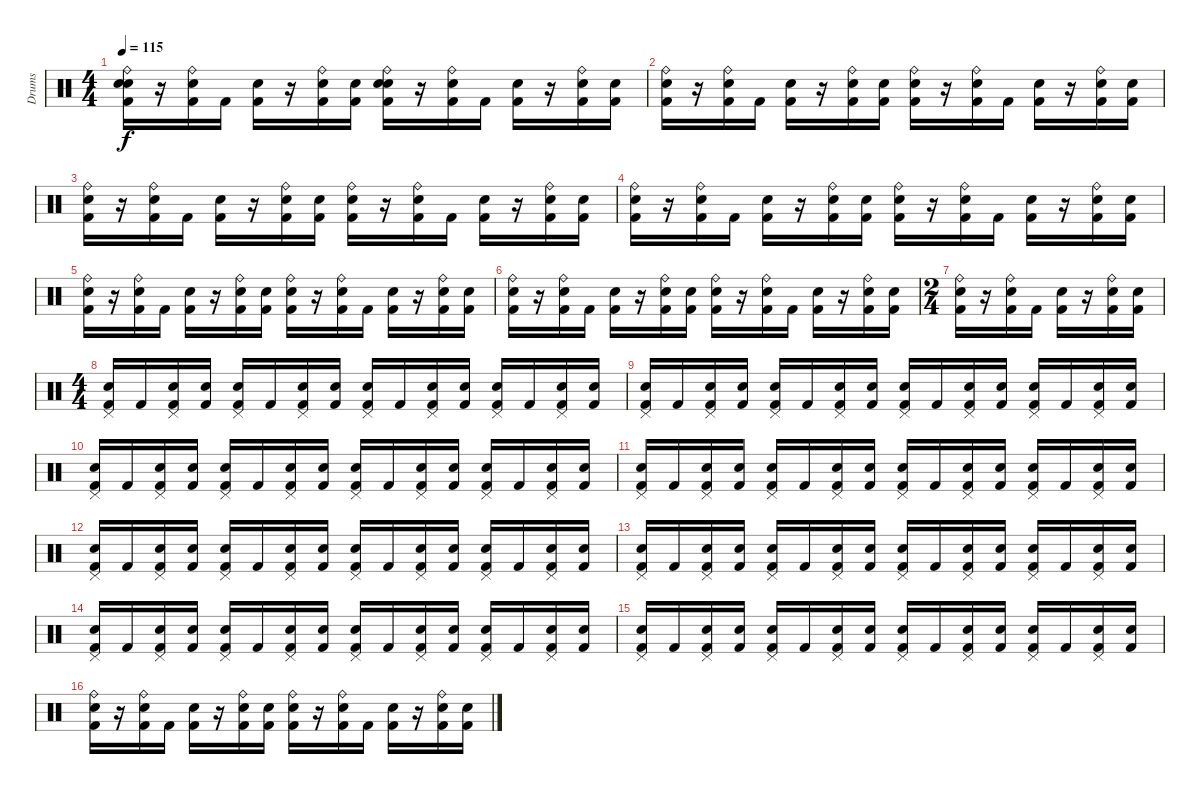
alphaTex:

\track ("Drums" "Drums") {instrument percussion}
\staff {score}
\articulation defaults
\ts (4 4)
\tempo 115
\clef neutral
\ks c
("Ride (bell)" "Electric Snare (hit)" "Snare (hit) 2" "Kick (hit) 2").16{dy f} r.16 ("Ride (bell)" "Snare (hit) 2" "Kick (hit) 2").16 "Kick (hit) 2".16 ("Electric Snare (hit)" "Kick (hit) 2").16 r.16 ("Ride (bell)" "Snare (hit) 2" "Kick (hit) 2").16 ("Snare (hit) 2" "Kick (hit) 2").16 ("Ride (bell)" "Electric Snare (hit)" "Snare (hit) 2" "Kick (hit) 2").16 r.16 ("Ride (bell)" "Snare (hit) 2" "Kick (hit) 2").16 "Kick (hit) 2".16 ("Electric Snare (hit)" "Kick (hit) 2").16 r.16 ("Ride (bell)" "Snare (hit) 2" "Kick (hit) 2").16 ("Snare (hit) 2" "Kick (hit) 2").16 |
("Ride (bell)" "Snare (hit) 2" "Kick (hit) 2").16 r.16 ("Ride (bell)" "Snare (hit) 2" "Kick (hit) 2").16 "Kick (hit) 2".16 ("Electric Snare (hit)" "Kick (hit) 2").16 r.16 ("Ride (bell)" "Snare (hit) 2" "Kick (hit) 2").16 ("Snare (hit) 2" "Kick (hit) 2").16 ("Ride (bell)" "Snare (hit) 2" "Kick (hit) 2").16 r.16 ("Ride (bell)" "Snare (hit) 2" "Kick (hit) 2").16 "Kick (hit) 2".16 ("Electric Snare (hit)" "Kick (hit) 2").16 r.16 ("Ride (bell)" "Snare (hit) 2" "Kick (hit) 2").16 ("Snare (hit) 2" "Kick (hit) 2").16 |
("Ride (bell)" "Snare (hit) 2" "Kick (hit) 2").16 r.16 ("Ride (bell)" "Snare (hit) 2" "Kick (hit) 2").16 "Kick (hit) 2".16 ("Electric Snare (hit)" "Kick (hit) 2").16 r.16 ("Ride (bell)" "Snare (hit) 2" "Kick (hit) 2").16 ("Snare (hit) 2" "Kick (hit) 2").16 ("Ride (bell)" "Snare (hit) 2" "Kick (hit) 2").16 r.16 ("Ride (bell)" "Snare (hit) 2" "Kick (hit) 2").16 "Kick (hit) 2".16 ("Electric Snare (hit)" "Kick (hit) 2").16 r.16 ("Ride (bell)" "Snare (hit) 2" "Kick (hit) 2").16 ("Snare (hit) 2" "Kick (hit) 2").16 |
("Ride (bell)" "Snare (hit) 2" "Kick (hit) 2").16 r.16 ("Ride (bell)" "Snare (hit) 2" "Kick (hit) 2").16 "Kick (hit) 2".16 ("Electric Snare (hit)" "Kick (hit) 2").16 r.16 ("Ride (bell)" "Snare (hit) 2" "Kick (hit) 2").16 ("Snare (hit) 2" "Kick (hit) 2").16 ("Ride (bell)" "Snare (hit) 2" "Kick (hit) 2").16 r.16 ("Ride (bell)" "Snare (hit) 2" "Kick (hit) 2").16 "Kick (hit) 2".16 ("Electric Snare (hit)" "Kick (hit) 2").16 r.16 ("Ride (bell)" "Snare (hit) 2" "Kick (hit) 2").16 ("Snare (hit) 2" "Kick (hit) 2").16 |
("Ride (bell)" "Snare (hit) 2" "Kick (hit) 2").16 r.16 ("Ride (bell)" "Snare (hit) 2" "Kick (hit) 2").16 "Kick (hit) 2".16 ("Electric Snare (hit)" "Kick (hit) 2").16 r.16 ("Ride (bell)" "Snare (hit) 2" "Kick (hit) 2").16 ("Snare (hit) 2" "Kick (hit) 2").16 ("Ride (bell)" "Snare (hit) 2" "Kick (hit) 2").16 r.16 ("Ride (bell)" "Snare (hit) 2" "Kick (hit) 2").16 "Kick (hit) 2".16 ("Electric Snare (hit)" "Kick (hit) 2").16 r.16 ("Ride (bell)" "Snare (hit) 2" "Kick (hit) 2").16 ("Snare (hit) 2" "Kick (hit) 2").16 |
("Ride (bell)" "Snare (hit) 2" "Kick (hit) 2").16 r.16 ("Ride (bell)" "Snare (hit) 2" "Kick (hit) 2").16 "Kick (hit) 2".16 ("Electric Snare (hit)" "Kick (hit) 2").16 r.16 ("Ride (bell)" "Snare (hit) 2" "Kick (hit) 2").16 ("Snare (hit) 2" "Kick (hit) 2").16 ("Ride (bell)" "Snare (hit) 2" "Kick (hit) 2").16 r.16 ("Ride (bell)" "Snare (hit) 2" "Kick (hit) 2").16 "Kick (hit) 2".16 ("Electric Snare (hit)" "Kick (hit) 2").16 r.16 ("Ride (bell)" "Snare (hit) 2" "Kick (hit) 2").16 ("Snare (hit) 2" "Kick (hit) 2").16 |
\ts (2 4)
("Ride (bell)" "Snare (hit) 2" "Kick (hit) 2").16 r.16 ("Ride (bell)" "Snare (hit) 2" "Kick (hit) 2").16 "Kick (hit) 2".16 ("Electric Snare (hit)" "Kick (hit) 2").16 r.16 ("Ride (bell)" "Snare (hit) 2" "Kick (hit) 2").16 ("Snare (hit) 2" "Kick (hit) 2").16 |
\ts (4 4)
("Pedal Hi-Hat (hit)" "Kick (hit) 2" "Snare (hit) 2").16 "Kick (hit) 2".16 ("Pedal Hi-Hat (hit)" "Kick (hit) 2" "Snare (hit) 2").16 ("Kick (hit) 2" "Snare (hit) 2").16 ("Pedal Hi-Hat (hit)" "Electric Snare (hit)" "Kick (hit) 2").16 "Kick (hit) 2".16 ("Pedal Hi-Hat (hit)" "Kick (hit) 2" "Snare (hit) 2").16 ("Kick (hit) 2" "Snare (hit) 2").16 ("Pedal Hi-Hat (hit)" "Kick (hit) 2" "Snare (hit) 2").16 "Kick (hit) 2".16 ("Pedal Hi-Hat (hit)" "Kick (hit) 2" "Snare (hit) 2").16 ("Kick (hit) 2" "Snare (hit) 2").16 ("Pedal Hi-Hat (hit)" "Electric Snare (hit)" "Kick (hit) 2").16 "Kick (hit) 2".16 ("Pedal Hi-Hat (hit)" "Kick (hit) 2" "Snare (hit) 2").16 ("Kick (hit) 2" "Snare (hit) 2").16 |
("Pedal Hi-Hat (hit)" "Kick (hit) 2" "Snare (hit) 2").16 "Kick (hit) 2".16 ("Pedal Hi-Hat (hit)" "Kick (hit) 2" "Snare (hit) 2").16 ("Kick (hit) 2" "Snare (hit) 2").16 ("Pedal Hi-Hat (hit)" "Electric Snare (hit)" "Kick (hit) 2").16 "Kick (hit) 2".16 ("Pedal Hi-Hat (hit)" "Kick (hit) 2" "Snare (hit) 2").16 ("Kick (hit) 2" "Snare (hit) 2").16 ("Pedal Hi-Hat (hit)" "Kick (hit) 2" "Snare (hit) 2").16 "Kick (hit) 2".16 ("Pedal Hi-Hat (hit)" "Kick (hit) 2" "Snare (hit) 2").16 ("Kick (hit) 2" "Snare (hit) 2").16 ("Pedal Hi-Hat (hit)" "Electric Snare (hit)" "Kick (hit) 2").16 "Kick (hit) 2".16 ("Pedal Hi-Hat (hit)" "Kick (hit) 2" "Snare (hit) 2").16 ("Kick (hit) 2" "Snare (hit) 2").16 |
("Pedal Hi-Hat (hit)" "Kick (hit) 2" "Snare (hit) 2").16 "Kick (hit) 2".16 ("Pedal Hi-Hat (hit)" "Kick (hit) 2" "Snare (hit) 2").16 ("Kick (hit) 2" "Snare (hit) 2").16 ("Pedal Hi-Hat (hit)" "Electric Snare (hit)" "Kick (hit) 2").16 "Kick (hit) 2".16 ("Pedal Hi-Hat (hit)" "Kick (hit) 2" "Snare (hit) 2").16 ("Kick (hit) 2" "Snare (hit) 2").16 ("Pedal Hi-Hat (hit)" "Kick (hit) 2" "Snare (hit) 2").16 "Kick (hit) 2".16 ("Pedal Hi-Hat (hit)" "Kick (hit) 2" "Snare (hit) 2").16 ("Kick (hit) 2" "Snare (hit) 2").16 ("Pedal Hi-Hat (hit)" "Electric Snare (hit)" "Kick (hit) 2").16 "Kick (hit) 2".16 ("Pedal Hi-Hat (hit)" "Kick (hit) 2" "Snare (hit) 2").16 ("Kick (hit) 2" "Snare (hit) 2").16 |
("Pedal Hi-Hat (hit)" "Kick (hit) 2" "Snare (hit) 2").16 "Kick (hit) 2".16 ("Pedal Hi-Hat (hit)" "Kick (hit) 2" "Snare (hit) 2").16 ("Kick (hit) 2" "Snare (hit) 2").16 ("Pedal Hi-Hat (hit)" "Electric Snare (hit)" "Kick (hit) 2").16 "Kick (hit) 2".16 ("Pedal Hi-Hat (hit)" "Kick (hit) 2" "Snare (hit) 2").16 ("Kick (hit) 2" "Snare (hit) 2").16 ("Pedal Hi-Hat (hit)" "Kick (hit) 2" "Snare (hit) 2").16 "Kick (hit) 2".16 ("Pedal Hi-Hat (hit)" "Kick (hit) 2" "Snare (hit) 2").16 ("Kick (hit) 2" "Snare (hit) 2").16 ("Pedal Hi-Hat (hit)" "Electric Snare (hit)" "Kick (hit) 2").16 "Kick (hit) 2".16 ("Pedal Hi-Hat (hit)" "Kick (hit) 2" "Snare (hit) 2").16 ("Kick (hit) 2" "Snare (hit) 2").16 |
("Pedal Hi-Hat (hit)" "Kick (hit) 2" "Snare (hit) 2").16 "Kick (hit) 2".16 ("Pedal Hi-Hat (hit)" "Kick (hit) 2" "Snare (hit) 2").16 ("Kick (hit) 2" "Snare (hit) 2").16 ("Pedal Hi-Hat (hit)" "Electric Snare (hit)" "Kick (hit) 2").16 "Kick (hit) 2".16 ("Pedal Hi-Hat (hit)" "Kick (hit) 2" "Snare (hit) 2").16 ("Kick (hit) 2" "Snare (hit) 2").16 ("Pedal Hi-Hat (hit)" "Kick (hit) 2" "Snare (hit) 2").16 "Kick (hit) 2".16 ("Pedal Hi-Hat (hit)" "Kick (hit) 2" "Snare (hit) 2").16 ("Kick (hit) 2" "Snare (hit) 2").16 ("Pedal Hi-Hat (hit)" "Electric Snare (hit)" "Kick (hit) 2").16 "Kick (hit) 2".16 ("Pedal Hi-Hat (hit)" "Kick (hit) 2" "Snare (hit) 2").16 ("Kick (hit) 2" "Snare (hit) 2").16 |
("Pedal Hi-Hat (hit)" "Kick (hit) 2" "Snare (hit) 2").16 "Kick (hit) 2".16 ("Pedal Hi-Hat (hit)" "Kick (hit) 2" "Snare (hit) 2").16 ("Kick (hit) 2" "Snare (hit) 2").16 ("Pedal Hi-Hat (hit)" "Electric Snare (hit)" "Kick (hit) 2").16 "Kick (hit) 2".16 ("Pedal Hi-Hat (hit)" "Kick (hit) 2" "Snare (hit) 2").16 ("Kick (hit) 2" "Snare (hit) 2").16 ("Pedal Hi-Hat (hit)" "Kick (hit) 2" "Snare (hit) 2").16 "Kick (hit) 2".16 ("Pedal Hi-Hat (hit)" "Kick (hit) 2" "Snare (hit) 2").16 ("Kick (hit) 2" "Snare (hit) 2").16 ("Pedal Hi-Hat (hit)" "Electric Snare (hit)" "Kick (hit) 2").16 "Kick (hit) 2".16 ("Pedal Hi-Hat (hit)" "Kick (hit) 2" "Snare (hit) 2").16 ("Kick (hit) 2" "Snare (hit) 2").16 |
("Pedal Hi-Hat (hit)" "Kick (hit) 2" "Snare (hit) 2").16 "Kick (hit) 2".16 ("Pedal Hi-Hat (hit)" "Kick (hit) 2" "Snare (hit) 2").16 ("Kick (hit) 2" "Snare (hit) 2").16 ("Pedal Hi-Hat (hit)" "Electric Snare (hit)" "Kick (hit) 2").16 "Kick (hit) 2".16 ("Pedal Hi-Hat (hit)" "Kick (hit) 2" "Snare (hit) 2").16 ("Kick (hit) 2" "Snare (hit) 2").16 ("Pedal Hi-Hat (hit)" "Kick (hit) 2" "Snare (hit) 2").16 "Kick (hit) 2".16 ("Pedal Hi-Hat (hit)" "Kick (hit) 2" "Snare (hit) 2").16 ("Kick (hit) 2" "Snare (hit) 2").16 ("Pedal Hi-Hat (hit)" "Electric Snare (hit)" "Kick (hit) 2").16 "Kick (hit) 2".16 ("Pedal Hi-Hat (hit)" "Kick (hit) 2" "Snare (hit) 2").16 ("Kick (hit) 2" "Snare (hit) 2").16 |
("Pedal Hi-Hat (hit)" "Kick (hit) 2" "Snare (hit) 2").16 "Kick (hit) 2".16 ("Pedal Hi-Hat (hit)" "Kick (hit) 2" "Snare (hit) 2").16 ("Kick (hit) 2" "Snare (hit) 2").16 ("Pedal Hi-Hat (hit)" "Electric Snare (hit)" "Kick (hit) 2").16 "Kick (hit) 2".16 ("Pedal Hi-Hat (hit)" "Kick (hit) 2" "Snare (hit) 2").16 ("Kick (hit) 2" "Snare (hit) 2").16 ("Pedal Hi-Hat (hit)" "Kick (hit) 2" "Snare (hit) 2").16 "Kick (hit) 2".16 ("Pedal Hi-Hat (hit)" "Kick (hit) 2" "Snare (hit) 2").16 ("Kick (hit) 2" "Snare (hit) 2").16 ("Pedal Hi-Hat (hit)" "Electric Snare (hit)" "Kick (hit) 2").16 "Kick (hit) 2".16 ("Pedal Hi-Hat (hit)" "Kick (hit) 2" "Snare (hit) 2").16 ("Kick (hit) 2" "Snare (hit) 2").16 |
("Ride (bell)" "Snare (hit) 2" "Kick (hit) 2").16 r.16 ("Ride (bell)" "Snare (hit) 2" "Kick (hit) 2").16 "Kick (hit) 2".16 ("Electric Snare (hit)" "Kick (hit) 2").16 r.16 ("Ride (bell)" "Snare (hit) 2" "Kick (hit) 2").16 ("Snare (hit) 2" "Kick (hit) 2").16 ("Ride (bell)" "Snare (hit) 2" "Kick (hit) 2").16 r.16 ("Ride (bell)" "Snare (hit) 2" "Kick (hit) 2").16 "Kick (hit) 2".16 ("Electric Snare (hit)" "Kick (hit) 2").16 r.16 ("Ride (bell)" "Snare (hit) 2" "Kick (hit) 2").16 ("Snare (hit) 2" "Kick (hit) 2").16
